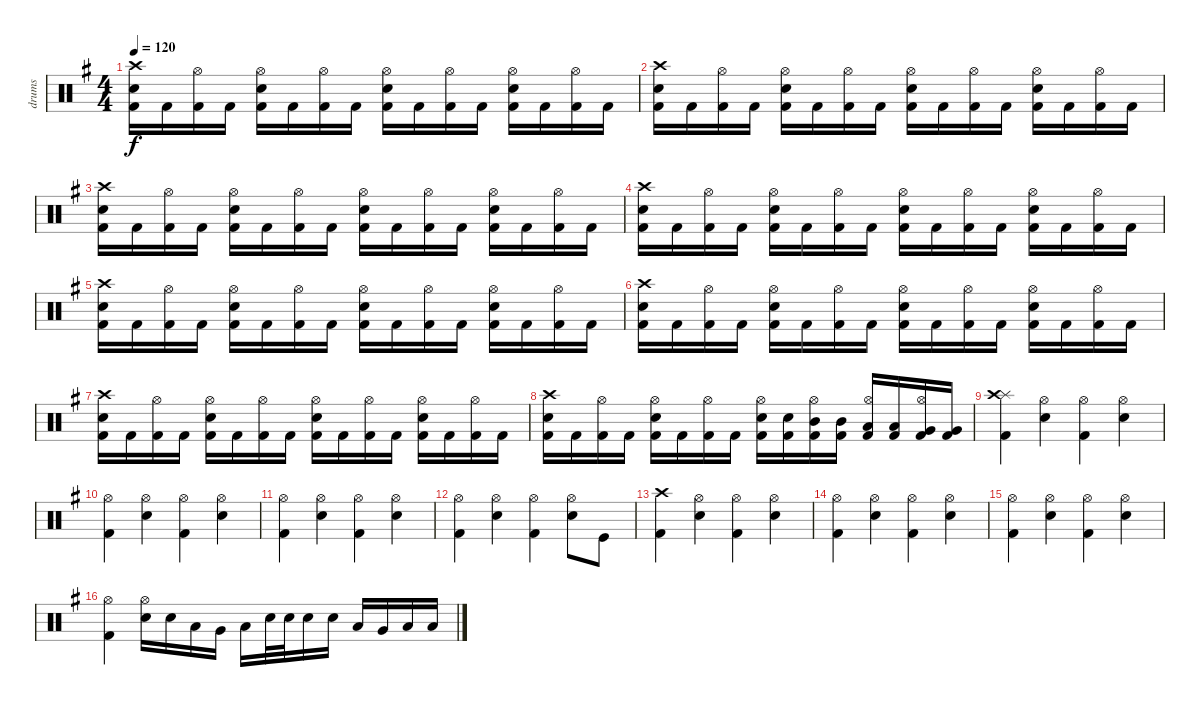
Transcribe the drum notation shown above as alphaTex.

\track ("drums" "drums") {instrument percussion}
\staff {score}
\articulation defaults
\ts (4 4)
\tempo 120
\clef neutral
\ks eminor
("Kick (hit) 2" "Electric Snare (hit)" "Crash high (hit)").16{dy f} "Kick (hit) 2".16 ("Kick (hit) 2" "Hi-Hat (open)").16 "Kick (hit) 2".16 ("Kick (hit) 2" "Electric Snare (hit)" "Hi-Hat (open)").16 "Kick (hit) 2".16 ("Kick (hit) 2" "Hi-Hat (open)").16 "Kick (hit) 2".16 ("Kick (hit) 2" "Electric Snare (hit)" "Hi-Hat (open)").16 "Kick (hit) 2".16 ("Kick (hit) 2" "Hi-Hat (open)").16 "Kick (hit) 2".16 ("Kick (hit) 2" "Electric Snare (hit)" "Hi-Hat (open)").16 "Kick (hit) 2".16 ("Kick (hit) 2" "Hi-Hat (open)").16 "Kick (hit) 2".16 |
("Kick (hit) 2" "Electric Snare (hit)" "Crash high (hit)").16 "Kick (hit) 2".16 ("Kick (hit) 2" "Hi-Hat (open)").16 "Kick (hit) 2".16 ("Kick (hit) 2" "Electric Snare (hit)" "Hi-Hat (open)").16 "Kick (hit) 2".16 ("Kick (hit) 2" "Hi-Hat (open)").16 "Kick (hit) 2".16 ("Kick (hit) 2" "Electric Snare (hit)" "Hi-Hat (open)").16 "Kick (hit) 2".16 ("Kick (hit) 2" "Hi-Hat (open)").16 "Kick (hit) 2".16 ("Kick (hit) 2" "Electric Snare (hit)" "Hi-Hat (open)").16 "Kick (hit) 2".16 ("Kick (hit) 2" "Hi-Hat (open)").16 "Kick (hit) 2".16 |
("Kick (hit) 2" "Electric Snare (hit)" "Crash high (hit)").16 "Kick (hit) 2".16 ("Kick (hit) 2" "Hi-Hat (open)").16 "Kick (hit) 2".16 ("Kick (hit) 2" "Electric Snare (hit)" "Hi-Hat (open)").16 "Kick (hit) 2".16 ("Kick (hit) 2" "Hi-Hat (open)").16 "Kick (hit) 2".16 ("Kick (hit) 2" "Electric Snare (hit)" "Hi-Hat (open)").16 "Kick (hit) 2".16 ("Kick (hit) 2" "Hi-Hat (open)").16 "Kick (hit) 2".16 ("Kick (hit) 2" "Electric Snare (hit)" "Hi-Hat (open)").16 "Kick (hit) 2".16 ("Kick (hit) 2" "Hi-Hat (open)").16 "Kick (hit) 2".16 |
("Kick (hit) 2" "Electric Snare (hit)" "Crash high (hit)").16 "Kick (hit) 2".16 ("Kick (hit) 2" "Hi-Hat (open)").16 "Kick (hit) 2".16 ("Kick (hit) 2" "Electric Snare (hit)" "Hi-Hat (open)").16 "Kick (hit) 2".16 ("Kick (hit) 2" "Hi-Hat (open)").16 "Kick (hit) 2".16 ("Kick (hit) 2" "Electric Snare (hit)" "Hi-Hat (open)").16 "Kick (hit) 2".16 ("Kick (hit) 2" "Hi-Hat (open)").16 "Kick (hit) 2".16 ("Kick (hit) 2" "Electric Snare (hit)" "Hi-Hat (open)").16 "Kick (hit) 2".16 ("Kick (hit) 2" "Hi-Hat (open)").16 "Kick (hit) 2".16 |
("Kick (hit) 2" "Electric Snare (hit)" "Crash high (hit)").16 "Kick (hit) 2".16 ("Kick (hit) 2" "Hi-Hat (open)").16 "Kick (hit) 2".16 ("Kick (hit) 2" "Electric Snare (hit)" "Hi-Hat (open)").16 "Kick (hit) 2".16 ("Kick (hit) 2" "Hi-Hat (open)").16 "Kick (hit) 2".16 ("Kick (hit) 2" "Electric Snare (hit)" "Hi-Hat (open)").16 "Kick (hit) 2".16 ("Kick (hit) 2" "Hi-Hat (open)").16 "Kick (hit) 2".16 ("Kick (hit) 2" "Electric Snare (hit)" "Hi-Hat (open)").16 "Kick (hit) 2".16 ("Kick (hit) 2" "Hi-Hat (open)").16 "Kick (hit) 2".16 |
("Kick (hit) 2" "Electric Snare (hit)" "Crash high (hit)").16 "Kick (hit) 2".16 ("Kick (hit) 2" "Hi-Hat (open)").16 "Kick (hit) 2".16 ("Kick (hit) 2" "Electric Snare (hit)" "Hi-Hat (open)").16 "Kick (hit) 2".16 ("Kick (hit) 2" "Hi-Hat (open)").16 "Kick (hit) 2".16 ("Kick (hit) 2" "Electric Snare (hit)" "Hi-Hat (open)").16 "Kick (hit) 2".16 ("Kick (hit) 2" "Hi-Hat (open)").16 "Kick (hit) 2".16 ("Kick (hit) 2" "Electric Snare (hit)" "Hi-Hat (open)").16 "Kick (hit) 2".16 ("Kick (hit) 2" "Hi-Hat (open)").16 "Kick (hit) 2".16 |
("Kick (hit) 2" "Electric Snare (hit)" "Crash high (hit)").16 "Kick (hit) 2".16 ("Kick (hit) 2" "Hi-Hat (open)").16 "Kick (hit) 2".16 ("Kick (hit) 2" "Electric Snare (hit)" "Hi-Hat (open)").16 "Kick (hit) 2".16 ("Kick (hit) 2" "Hi-Hat (open)").16 "Kick (hit) 2".16 ("Kick (hit) 2" "Electric Snare (hit)" "Hi-Hat (open)").16 "Kick (hit) 2".16 ("Kick (hit) 2" "Hi-Hat (open)").16 "Kick (hit) 2".16 ("Kick (hit) 2" "Electric Snare (hit)" "Hi-Hat (open)").16 "Kick (hit) 2".16 ("Kick (hit) 2" "Hi-Hat (open)").16 "Kick (hit) 2".16 |
("Kick (hit) 2" "Electric Snare (hit)" "Crash high (hit)").16 "Kick (hit) 2".16 ("Kick (hit) 2" "Hi-Hat (open)").16 "Kick (hit) 2".16 ("Kick (hit) 2" "Electric Snare (hit)" "Hi-Hat (open)").16 "Kick (hit) 2".16 ("Kick (hit) 2" "Hi-Hat (open)").16 "Kick (hit) 2".16 ("Kick (hit) 2" "Electric Snare (hit)" "Hi-Hat (open)").16 ("Kick (hit) 2" "Electric Snare (hit)").16 ("Kick (hit) 2" "Mid Tom (hit)" "Hi-Hat (open)").16 ("Kick (hit) 2" "Mid Tom (hit)").16 ("Kick (hit) 2" "Low Tom (hit)" "Hi-Hat (open)").16 ("Kick (hit) 2" "Low Tom (hit)").16 ("Kick (hit) 2" "Very Low Tom (hit)" "Hi-Hat (open)").16 ("Kick (hit) 2" "Very Low Tom (hit)").16 |
("Kick (hit) 2" "Splash (hit)" "Crash high (hit)").4 ("Electric Snare (hit)" "Hi-Hat (open)").4 ("Kick (hit) 2" "Hi-Hat (open)").4 ("Electric Snare (hit)" "Hi-Hat (open)").4 |
("Kick (hit) 2" "Hi-Hat (open)").4 ("Electric Snare (hit)" "Hi-Hat (open)").4 ("Kick (hit) 2" "Hi-Hat (open)").4 ("Electric Snare (hit)" "Hi-Hat (open)").4 |
("Kick (hit) 2" "Hi-Hat (open)").4 ("Electric Snare (hit)" "Hi-Hat (open)").4 ("Kick (hit) 2" "Hi-Hat (open)").4 ("Electric Snare (hit)" "Hi-Hat (open)").4 |
("Kick (hit) 2" "Hi-Hat (open)").4 ("Electric Snare (hit)" "Hi-Hat (open)").4 ("Kick (hit) 2" "Hi-Hat (open)").4 ("Electric Snare (hit)" "Hi-Hat (open)").8 "Kick (hit)".8 |
("Kick (hit) 2" "Crash high (hit)").4 ("Electric Snare (hit)" "Hi-Hat (open)").4 ("Kick (hit) 2" "Hi-Hat (open)").4 ("Electric Snare (hit)" "Hi-Hat (open)").4 |
("Kick (hit) 2" "Hi-Hat (open)").4 ("Electric Snare (hit)" "Hi-Hat (open)").4 ("Kick (hit) 2" "Hi-Hat (open)").4 ("Electric Snare (hit)" "Hi-Hat (open)").4 |
("Kick (hit) 2" "Hi-Hat (open)").4 ("Electric Snare (hit)" "Hi-Hat (open)").4 ("Kick (hit) 2" "Hi-Hat (open)").4 ("Electric Snare (hit)" "Hi-Hat (open)").4 |
("Kick (hit) 2" "Hi-Hat (open)").4 ("Electric Snare (hit)" "Hi-Hat (open)").16 "Electric Snare (hit)".16 "Low Tom (hit)".16 "Very Low Tom (hit)".16 "Low Floor Tom (hit)".16 "Electric Snare (hit)".32 "Electric Snare (hit)".32 "Electric Snare (hit)".16 "Electric Snare (hit)".16 "Low Tom (hit)".16 "Very Low Tom (hit)".16 "Low Floor Tom (hit)".16 "Low Floor Tom (hit)".16
